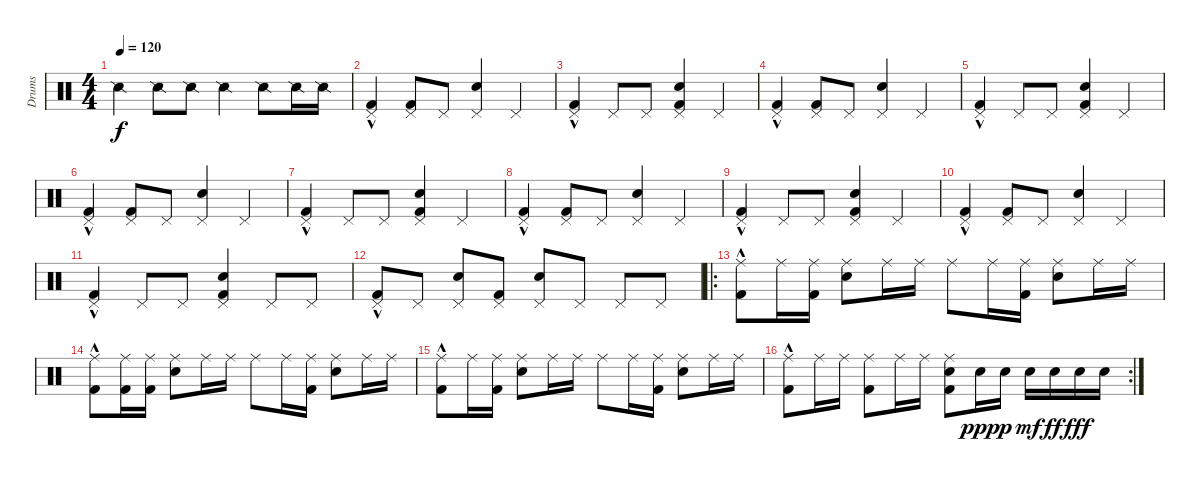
\track ("Drums" "Drums") {instrument percussion}
\staff {score}
\articulation defaults
\ts (4 4)
\tempo 120
\clef neutral
\ks c "Snare (side stick) 2".4{dy f} "Snare (side stick) 2".8 "Snare (side stick) 2".8 "Snare (side stick) 2".4 "Snare (side stick) 2".8 "Snare (side stick) 2".16 "Snare (side stick) 2".16
|
("Pedal Hi-Hat (hit)"{hac} "Kick (hit) 2").4 ("Pedal Hi-Hat (hit)" "Kick (hit) 2").8 "Pedal Hi-Hat (hit)".8 ("Pedal Hi-Hat (hit)" "Snare (hit) 2").4 "Pedal Hi-Hat (hit)".4 |
("Pedal Hi-Hat (hit)"{hac} "Kick (hit) 2").4 "Pedal Hi-Hat (hit)".8 "Pedal Hi-Hat (hit)".8 ("Pedal Hi-Hat (hit)" "Snare (hit) 2" "Kick (hit) 2").4 "Pedal Hi-Hat (hit)".4 |
("Pedal Hi-Hat (hit)"{hac} "Kick (hit) 2").4 ("Pedal Hi-Hat (hit)" "Kick (hit) 2").8 "Pedal Hi-Hat (hit)".8 ("Pedal Hi-Hat (hit)" "Snare (hit) 2").4 "Pedal Hi-Hat (hit)".4 |
("Pedal Hi-Hat (hit)"{hac} "Kick (hit) 2").4 "Pedal Hi-Hat (hit)".8 "Pedal Hi-Hat (hit)".8 ("Pedal Hi-Hat (hit)" "Snare (hit) 2" "Kick (hit) 2").4 "Pedal Hi-Hat (hit)".4 |
("Pedal Hi-Hat (hit)"{hac} "Kick (hit) 2").4 ("Pedal Hi-Hat (hit)" "Kick (hit) 2").8 "Pedal Hi-Hat (hit)".8 ("Pedal Hi-Hat (hit)" "Snare (hit) 2").4 "Pedal Hi-Hat (hit)".4 |
("Pedal Hi-Hat (hit)"{hac} "Kick (hit) 2").4 "Pedal Hi-Hat (hit)".8 "Pedal Hi-Hat (hit)".8 ("Pedal Hi-Hat (hit)" "Snare (hit) 2" "Kick (hit) 2").4 "Pedal Hi-Hat (hit)".4 |
("Pedal Hi-Hat (hit)"{hac} "Kick (hit) 2").4 ("Pedal Hi-Hat (hit)" "Kick (hit) 2").8 "Pedal Hi-Hat (hit)".8 ("Pedal Hi-Hat (hit)" "Snare (hit) 2").4 "Pedal Hi-Hat (hit)".4 |
("Pedal Hi-Hat (hit)"{hac} "Kick (hit) 2").4 "Pedal Hi-Hat (hit)".8 "Pedal Hi-Hat (hit)".8 ("Pedal Hi-Hat (hit)" "Snare (hit) 2" "Kick (hit) 2").4 "Pedal Hi-Hat (hit)".4 |
("Pedal Hi-Hat (hit)"{hac} "Kick (hit) 2").4 ("Pedal Hi-Hat (hit)" "Kick (hit) 2").8 "Pedal Hi-Hat (hit)".8 ("Pedal Hi-Hat (hit)" "Snare (hit) 2").4 "Pedal Hi-Hat (hit)".4 |
("Pedal Hi-Hat (hit)"{hac} "Kick (hit) 2").4 "Pedal Hi-Hat (hit)".8 "Pedal Hi-Hat (hit)".8 ("Pedal Hi-Hat (hit)" "Snare (hit) 2" "Kick (hit) 2").4 "Pedal Hi-Hat (hit)".8 "Pedal Hi-Hat (hit)".8 |
("Pedal Hi-Hat (hit)"{hac} "Kick (hit) 2").8 "Pedal Hi-Hat (hit)".8 ("Pedal Hi-Hat (hit)" "Snare (hit) 2").8 ("Pedal Hi-Hat (hit)" "Kick (hit) 2").8 ("Pedal Hi-Hat (hit)" "Snare (hit) 2").8 "Pedal Hi-Hat (hit)".8 "Pedal Hi-Hat (hit)".8 "Pedal Hi-Hat (hit)".8 |
\ro
("Ride (middle)"{hac} "Kick (hit) 2").8 "Ride (middle)".16 ("Ride (middle)" "Kick (hit) 2").16 ("Ride (middle)" "Snare (hit) 2").8 "Ride (middle)".16 "Ride (middle)".16 "Ride (middle)".8 "Ride (middle)".16 ("Ride (middle)" "Kick (hit) 2").16 ("Ride (middle)" "Snare (hit) 2").8 "Ride (middle)".16 "Ride (middle)".16 |
("Ride (middle)"{hac} "Kick (hit) 2").8 ("Ride (middle)" "Kick (hit) 2").16 ("Ride (middle)" "Kick (hit) 2").16 ("Ride (middle)" "Snare (hit) 2").8 "Ride (middle)".16 "Ride (middle)".16 "Ride (middle)".8 "Ride (middle)".16 ("Ride (middle)" "Kick (hit) 2").16 ("Ride (middle)" "Snare (hit) 2").8 "Ride (middle)".16 "Ride (middle)".16 |
("Ride (middle)"{hac} "Kick (hit) 2").8 "Ride (middle)".16 ("Ride (middle)" "Kick (hit) 2").16 ("Ride (middle)" "Snare (hit) 2").8 "Ride (middle)".16 "Ride (middle)".16 "Ride (middle)".8 "Ride (middle)".16 ("Ride (middle)" "Kick (hit) 2").16 ("Ride (middle)" "Snare (hit) 2").8 "Ride (middle)".16 "Ride (middle)".16 |
\rc 2
("Ride (middle)"{hac} "Kick (hit) 2").8 "Ride (middle)".16 "Ride (middle)".16 ("Ride (middle)" "Kick (hit) 2").8 "Ride (middle)".16 "Ride (middle)".16 ("Ride (middle)" "Snare (hit) 2" "Kick (hit) 2").8 "Snare (hit) 2".16{dy ppp} "Snare (hit) 2".16{dy p} "Snare (hit) 2".16{dy mf} "Snare (hit) 2".16{dy ff} "Snare (hit) 2".16{dy fff} "Snare (hit) 2".16
